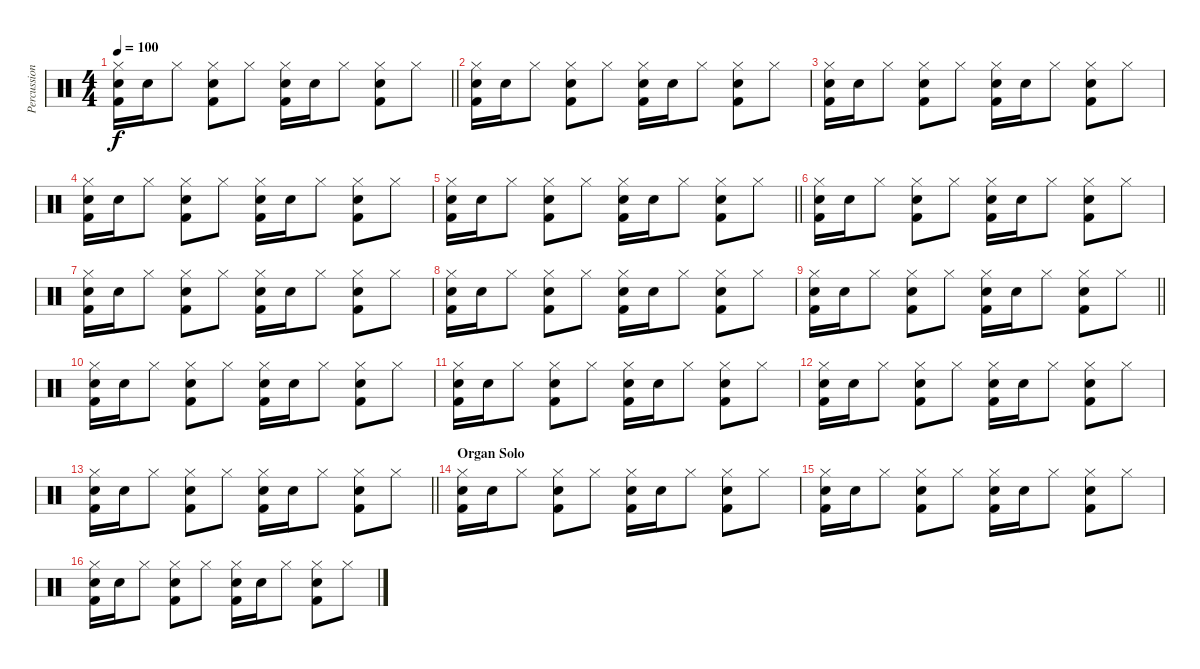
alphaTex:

\track ("Percussion" "Percussion") {instrument percussion}
\staff {score}
\articulation defaults
\ts (4 4)
\tempo 100
\clef neutral
\barLineRight lightlight
\ks c
("Snare (hit) 2" "Hi-Hat (closed)" "Kick (hit) 2").16{dy f} "Snare (hit) 2".16 "Hi-Hat (closed)".8 ("Snare (hit) 2" "Hi-Hat (closed)" "Kick (hit) 2").8 "Hi-Hat (closed)".8 ("Snare (hit) 2" "Hi-Hat (closed)" "Kick (hit) 2").16 "Snare (hit) 2".16 "Hi-Hat (closed)".8 ("Snare (hit) 2" "Hi-Hat (closed)" "Kick (hit) 2").8 "Hi-Hat (closed)".8 |
("Snare (hit) 2" "Hi-Hat (closed)" "Kick (hit) 2").16 "Snare (hit) 2".16 "Hi-Hat (closed)".8 ("Snare (hit) 2" "Hi-Hat (closed)" "Kick (hit) 2").8 "Hi-Hat (closed)".8 ("Snare (hit) 2" "Hi-Hat (closed)" "Kick (hit) 2").16 "Snare (hit) 2".16 "Hi-Hat (closed)".8 ("Snare (hit) 2" "Hi-Hat (closed)" "Kick (hit) 2").8 "Hi-Hat (closed)".8 |
("Snare (hit) 2" "Hi-Hat (closed)" "Kick (hit) 2").16 "Snare (hit) 2".16 "Hi-Hat (closed)".8 ("Snare (hit) 2" "Hi-Hat (closed)" "Kick (hit) 2").8 "Hi-Hat (closed)".8 ("Snare (hit) 2" "Hi-Hat (closed)" "Kick (hit) 2").16 "Snare (hit) 2".16 "Hi-Hat (closed)".8 ("Snare (hit) 2" "Hi-Hat (closed)" "Kick (hit) 2").8 "Hi-Hat (closed)".8 |
("Snare (hit) 2" "Hi-Hat (closed)" "Kick (hit) 2").16 "Snare (hit) 2".16 "Hi-Hat (closed)".8 ("Snare (hit) 2" "Hi-Hat (closed)" "Kick (hit) 2").8 "Hi-Hat (closed)".8 ("Snare (hit) 2" "Hi-Hat (closed)" "Kick (hit) 2").16 "Snare (hit) 2".16 "Hi-Hat (closed)".8 ("Snare (hit) 2" "Hi-Hat (closed)" "Kick (hit) 2").8 "Hi-Hat (closed)".8 |
\barLineRight lightlight
("Snare (hit) 2" "Hi-Hat (closed)" "Kick (hit) 2").16 "Snare (hit) 2".16 "Hi-Hat (closed)".8 ("Snare (hit) 2" "Hi-Hat (closed)" "Kick (hit) 2").8 "Hi-Hat (closed)".8 ("Snare (hit) 2" "Hi-Hat (closed)" "Kick (hit) 2").16 "Snare (hit) 2".16 "Hi-Hat (closed)".8 ("Snare (hit) 2" "Hi-Hat (closed)" "Kick (hit) 2").8 "Hi-Hat (closed)".8 |
("Snare (hit) 2" "Hi-Hat (closed)" "Kick (hit) 2").16 "Snare (hit) 2".16 "Hi-Hat (closed)".8 ("Snare (hit) 2" "Hi-Hat (closed)" "Kick (hit) 2").8 "Hi-Hat (closed)".8 ("Snare (hit) 2" "Hi-Hat (closed)" "Kick (hit) 2").16 "Snare (hit) 2".16 "Hi-Hat (closed)".8 ("Snare (hit) 2" "Hi-Hat (closed)" "Kick (hit) 2").8 "Hi-Hat (closed)".8 |
("Snare (hit) 2" "Hi-Hat (closed)" "Kick (hit) 2").16 "Snare (hit) 2".16 "Hi-Hat (closed)".8 ("Snare (hit) 2" "Hi-Hat (closed)" "Kick (hit) 2").8 "Hi-Hat (closed)".8 ("Snare (hit) 2" "Hi-Hat (closed)" "Kick (hit) 2").16 "Snare (hit) 2".16 "Hi-Hat (closed)".8 ("Snare (hit) 2" "Hi-Hat (closed)" "Kick (hit) 2").8 "Hi-Hat (closed)".8 |
("Snare (hit) 2" "Hi-Hat (closed)" "Kick (hit) 2").16 "Snare (hit) 2".16 "Hi-Hat (closed)".8 ("Snare (hit) 2" "Hi-Hat (closed)" "Kick (hit) 2").8 "Hi-Hat (closed)".8 ("Snare (hit) 2" "Hi-Hat (closed)" "Kick (hit) 2").16 "Snare (hit) 2".16 "Hi-Hat (closed)".8 ("Snare (hit) 2" "Hi-Hat (closed)" "Kick (hit) 2").8 "Hi-Hat (closed)".8 |
\barLineRight lightlight
("Snare (hit) 2" "Hi-Hat (closed)" "Kick (hit) 2").16 "Snare (hit) 2".16 "Hi-Hat (closed)".8 ("Snare (hit) 2" "Hi-Hat (closed)" "Kick (hit) 2").8 "Hi-Hat (closed)".8 ("Snare (hit) 2" "Hi-Hat (closed)" "Kick (hit) 2").16 "Snare (hit) 2".16 "Hi-Hat (closed)".8 ("Snare (hit) 2" "Hi-Hat (closed)" "Kick (hit) 2").8 "Hi-Hat (closed)".8 |
("Snare (hit) 2" "Hi-Hat (closed)" "Kick (hit) 2").16 "Snare (hit) 2".16 "Hi-Hat (closed)".8 ("Snare (hit) 2" "Hi-Hat (closed)" "Kick (hit) 2").8 "Hi-Hat (closed)".8 ("Snare (hit) 2" "Hi-Hat (closed)" "Kick (hit) 2").16 "Snare (hit) 2".16 "Hi-Hat (closed)".8 ("Snare (hit) 2" "Hi-Hat (closed)" "Kick (hit) 2").8 "Hi-Hat (closed)".8 |
("Snare (hit) 2" "Hi-Hat (closed)" "Kick (hit) 2").16 "Snare (hit) 2".16 "Hi-Hat (closed)".8 ("Snare (hit) 2" "Hi-Hat (closed)" "Kick (hit) 2").8 "Hi-Hat (closed)".8 ("Snare (hit) 2" "Hi-Hat (closed)" "Kick (hit) 2").16 "Snare (hit) 2".16 "Hi-Hat (closed)".8 ("Snare (hit) 2" "Hi-Hat (closed)" "Kick (hit) 2").8 "Hi-Hat (closed)".8 |
("Snare (hit) 2" "Hi-Hat (closed)" "Kick (hit) 2").16 "Snare (hit) 2".16 "Hi-Hat (closed)".8 ("Snare (hit) 2" "Hi-Hat (closed)" "Kick (hit) 2").8 "Hi-Hat (closed)".8 ("Snare (hit) 2" "Hi-Hat (closed)" "Kick (hit) 2").16 "Snare (hit) 2".16 "Hi-Hat (closed)".8 ("Snare (hit) 2" "Hi-Hat (closed)" "Kick (hit) 2").8 "Hi-Hat (closed)".8 |
\barLineRight lightlight
("Snare (hit) 2" "Hi-Hat (closed)" "Kick (hit) 2").16 "Snare (hit) 2".16 "Hi-Hat (closed)".8 ("Snare (hit) 2" "Hi-Hat (closed)" "Kick (hit) 2").8 "Hi-Hat (closed)".8 ("Snare (hit) 2" "Hi-Hat (closed)" "Kick (hit) 2").16 "Snare (hit) 2".16 "Hi-Hat (closed)".8 ("Snare (hit) 2" "Hi-Hat (closed)" "Kick (hit) 2").8 "Hi-Hat (closed)".8 |
\section ("" "Organ Solo")
("Snare (hit) 2" "Hi-Hat (closed)" "Kick (hit) 2").16 "Snare (hit) 2".16 "Hi-Hat (closed)".8 ("Snare (hit) 2" "Hi-Hat (closed)" "Kick (hit) 2").8 "Hi-Hat (closed)".8 ("Snare (hit) 2" "Hi-Hat (closed)" "Kick (hit) 2").16 "Snare (hit) 2".16 "Hi-Hat (closed)".8 ("Snare (hit) 2" "Hi-Hat (closed)" "Kick (hit) 2").8 "Hi-Hat (closed)".8 |
("Snare (hit) 2" "Hi-Hat (closed)" "Kick (hit) 2").16 "Snare (hit) 2".16 "Hi-Hat (closed)".8 ("Snare (hit) 2" "Hi-Hat (closed)" "Kick (hit) 2").8 "Hi-Hat (closed)".8 ("Snare (hit) 2" "Hi-Hat (closed)" "Kick (hit) 2").16 "Snare (hit) 2".16 "Hi-Hat (closed)".8 ("Snare (hit) 2" "Hi-Hat (closed)" "Kick (hit) 2").8 "Hi-Hat (closed)".8 |
("Snare (hit) 2" "Hi-Hat (closed)" "Kick (hit) 2").16 "Snare (hit) 2".16 "Hi-Hat (closed)".8 ("Snare (hit) 2" "Hi-Hat (closed)" "Kick (hit) 2").8 "Hi-Hat (closed)".8 ("Snare (hit) 2" "Hi-Hat (closed)" "Kick (hit) 2").16 "Snare (hit) 2".16 "Hi-Hat (closed)".8 ("Snare (hit) 2" "Hi-Hat (closed)" "Kick (hit) 2").8 "Hi-Hat (closed)".8
